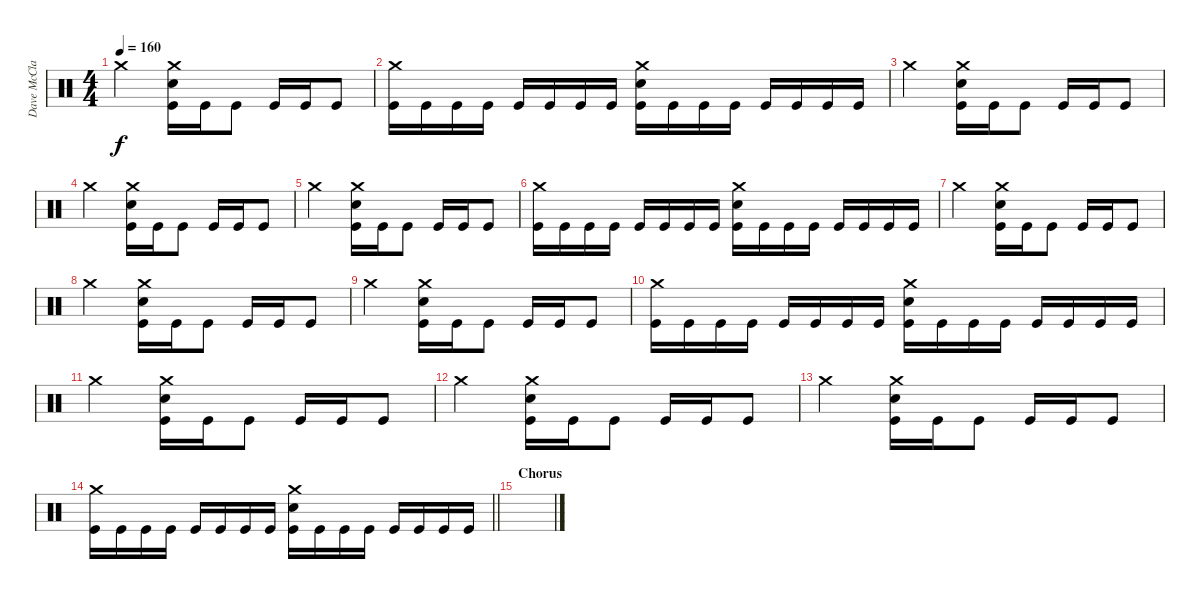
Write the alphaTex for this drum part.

\track ("Dave McClain" "Dave McCla") {instrument percussion}
\staff {score}
\articulation defaults
\ts (4 4)
\tempo 160
\clef neutral
\ks c "Crash medium (hit)".2{dy f}
("Crash medium (hit)" "Electric Snare (hit)" "Kick (hit)").16 "Kick (hit)".16 "Kick (hit)".8 "Kick (hit)".16 "Kick (hit)".16 "Kick (hit)".8 |
("Crash medium (hit)" "Kick (hit)").16 "Kick (hit)".16 "Kick (hit)".16 "Kick (hit)".16 "Kick (hit)".16 "Kick (hit)".16 "Kick (hit)".16 "Kick (hit)".16 ("Crash medium (hit)" "Electric Snare (hit)" "Kick (hit)").16 "Kick (hit)".16 "Kick (hit)".16 "Kick (hit)".16 "Kick (hit)".16 "Kick (hit)".16 "Kick (hit)".16 "Kick (hit)".16 |
"Crash medium (hit)".2 ("Crash medium (hit)" "Electric Snare (hit)" "Kick (hit)").16 "Kick (hit)".16 "Kick (hit)".8 "Kick (hit)".16 "Kick (hit)".16 "Kick (hit)".8 |
"Crash medium (hit)".2 ("Crash medium (hit)" "Electric Snare (hit)" "Kick (hit)").16 "Kick (hit)".16 "Kick (hit)".8 "Kick (hit)".16 "Kick (hit)".16 "Kick (hit)".8 |
"Crash medium (hit)".2 ("Crash medium (hit)" "Electric Snare (hit)" "Kick (hit)").16 "Kick (hit)".16 "Kick (hit)".8 "Kick (hit)".16 "Kick (hit)".16 "Kick (hit)".8 |
("Crash medium (hit)" "Kick (hit)").16 "Kick (hit)".16 "Kick (hit)".16 "Kick (hit)".16 "Kick (hit)".16 "Kick (hit)".16 "Kick (hit)".16 "Kick (hit)".16 ("Crash medium (hit)" "Electric Snare (hit)" "Kick (hit)").16 "Kick (hit)".16 "Kick (hit)".16 "Kick (hit)".16 "Kick (hit)".16 "Kick (hit)".16 "Kick (hit)".16 "Kick (hit)".16 |
"Crash medium (hit)".2 ("Crash medium (hit)" "Electric Snare (hit)" "Kick (hit)").16 "Kick (hit)".16 "Kick (hit)".8 "Kick (hit)".16 "Kick (hit)".16 "Kick (hit)".8 |
"Crash medium (hit)".2 ("Crash medium (hit)" "Electric Snare (hit)" "Kick (hit)").16 "Kick (hit)".16 "Kick (hit)".8 "Kick (hit)".16 "Kick (hit)".16 "Kick (hit)".8 |
"Crash medium (hit)".2 ("Crash medium (hit)" "Electric Snare (hit)" "Kick (hit)").16 "Kick (hit)".16 "Kick (hit)".8 "Kick (hit)".16 "Kick (hit)".16 "Kick (hit)".8 |
("Crash medium (hit)" "Kick (hit)").16 "Kick (hit)".16 "Kick (hit)".16 "Kick (hit)".16 "Kick (hit)".16 "Kick (hit)".16 "Kick (hit)".16 "Kick (hit)".16 ("Crash medium (hit)" "Electric Snare (hit)" "Kick (hit)").16 "Kick (hit)".16 "Kick (hit)".16 "Kick (hit)".16 "Kick (hit)".16 "Kick (hit)".16 "Kick (hit)".16 "Kick (hit)".16 |
"Crash medium (hit)".2 ("Crash medium (hit)" "Electric Snare (hit)" "Kick (hit)").16 "Kick (hit)".16 "Kick (hit)".8 "Kick (hit)".16 "Kick (hit)".16 "Kick (hit)".8 |
"Crash medium (hit)".2 ("Crash medium (hit)" "Electric Snare (hit)" "Kick (hit)").16 "Kick (hit)".16 "Kick (hit)".8 "Kick (hit)".16 "Kick (hit)".16 "Kick (hit)".8 |
"Crash medium (hit)".2 ("Crash medium (hit)" "Electric Snare (hit)" "Kick (hit)").16 "Kick (hit)".16 "Kick (hit)".8 "Kick (hit)".16 "Kick (hit)".16 "Kick (hit)".8 |
\barLineRight lightlight
("Crash medium (hit)" "Kick (hit)").16 "Kick (hit)".16 "Kick (hit)".16 "Kick (hit)".16 "Kick (hit)".16 "Kick (hit)".16 "Kick (hit)".16 "Kick (hit)".16 ("Crash medium (hit)" "Electric Snare (hit)" "Kick (hit)").16 "Kick (hit)".16 "Kick (hit)".16 "Kick (hit)".16 "Kick (hit)".16 "Kick (hit)".16 "Kick (hit)".16 "Kick (hit)".16 |
\section ("" "Chorus")
